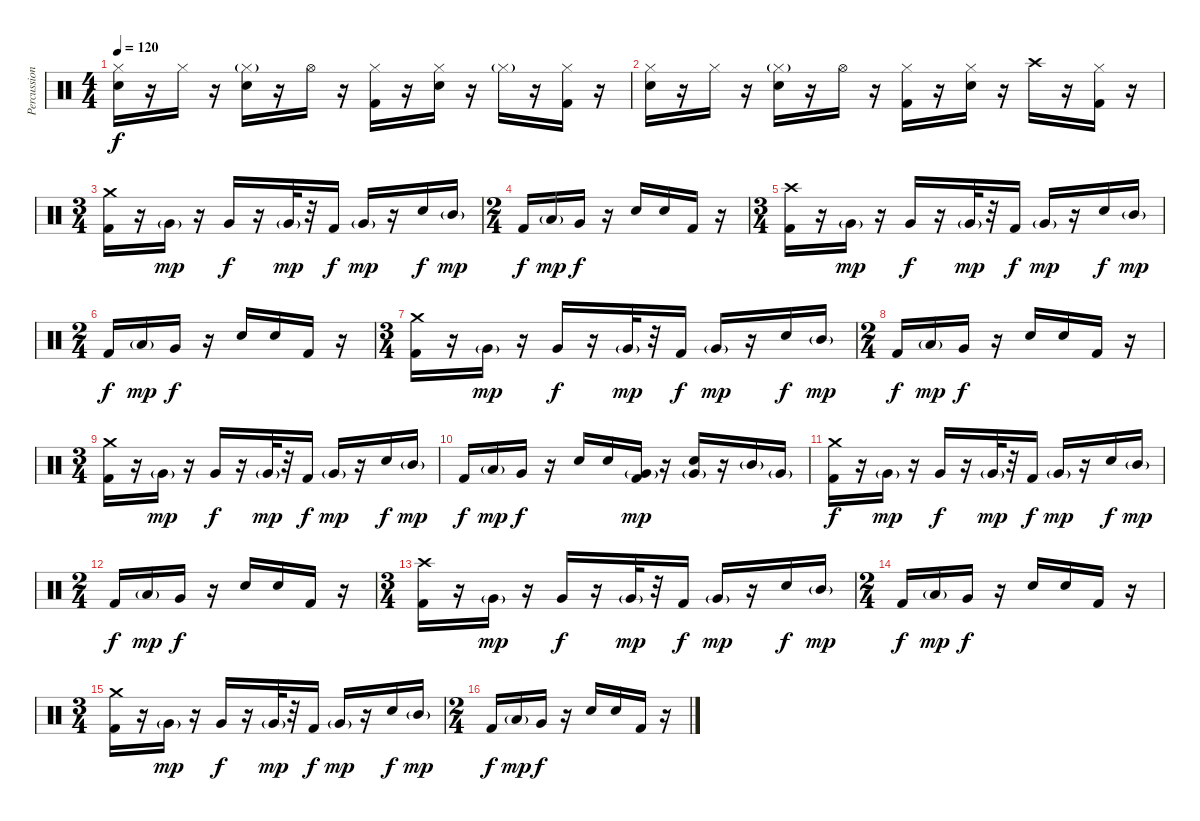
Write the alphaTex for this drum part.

\track ("Percussion" "Percussion") {instrument percussion}
\staff {score}
\articulation defaults
\ts (4 4)
\tempo 120
\clef neutral
\ks c
("Hi-Hat (closed)" "Electric Snare (hit)").16{dy f} r.16 "Hi-Hat (closed)".16 r.16 ("Hi-Hat (closed)"{g} "Electric Snare (hit)").16 r.16 "Hi-Hat (open)".16 r.16 ("Hi-Hat (closed)" "Kick (hit) 2").16 r.16 ("Hi-Hat (closed)" "Electric Snare (hit)").16 r.16 "Hi-Hat (closed)"{g}.16 r.16 ("Hi-Hat (closed)" "Kick (hit) 2").16 r.16 |
("Hi-Hat (closed)" "Electric Snare (hit)").16 r.16 "Hi-Hat (closed)".16 r.16 ("Hi-Hat (closed)"{g} "Electric Snare (hit)").16 r.16 "Hi-Hat (open)".16 r.16 ("Hi-Hat (closed)" "Kick (hit) 2").16 r.16 ("Hi-Hat (closed)" "Electric Snare (hit)").16 r.16 "Crash high (hit)".16 r.16 ("Hi-Hat (closed)" "Kick (hit) 2").16 r.16 |
\ts (3 4)
("Crash medium (hit)" "Kick (hit) 2").16 r.16 "Very Low Tom (hit)"{g}.16{dy mp} r.16 "Very Low Tom (hit)".16{dy f} r.16 "Very Low Tom (hit)"{g}.32{dy mp} r.32 "Kick (hit) 2".16{dy f} "Very Low Tom (hit)"{g}.16{dy mp} r.16 "Electric Snare (hit)".16{dy f} "Mid Tom (hit)"{g}.16{dy mp} |
\ts (2 4)
"Kick (hit) 2".16{dy f} "Low Tom (hit)"{g}.16{dy mp} "Very Low Tom (hit)".16{dy f} r.16 "Electric Snare (hit)".16 "Electric Snare (hit)".16 "Kick (hit) 2".16 r.16 |
\ts (3 4)
("Crash high (hit)" "Kick (hit) 2").16 r.16 "Very Low Tom (hit)"{g}.16{dy mp} r.16 "Very Low Tom (hit)".16{dy f} r.16 "Very Low Tom (hit)"{g}.32{dy mp} r.32 "Kick (hit) 2".16{dy f} "Very Low Tom (hit)"{g}.16{dy mp} r.16 "Electric Snare (hit)".16{dy f} "Mid Tom (hit)"{g}.16{dy mp} |
\ts (2 4)
"Kick (hit) 2".16{dy f} "Low Tom (hit)"{g}.16{dy mp} "Very Low Tom (hit)".16{dy f} r.16 "Electric Snare (hit)".16 "Electric Snare (hit)".16 "Kick (hit) 2".16 r.16 |
\ts (3 4)
("Crash medium (hit)" "Kick (hit) 2").16 r.16 "Very Low Tom (hit)"{g}.16{dy mp} r.16 "Very Low Tom (hit)".16{dy f} r.16 "Very Low Tom (hit)"{g}.32{dy mp} r.32 "Kick (hit) 2".16{dy f} "Very Low Tom (hit)"{g}.16{dy mp} r.16 "Electric Snare (hit)".16{dy f} "Mid Tom (hit)"{g}.16{dy mp} |
\ts (2 4)
"Kick (hit) 2".16{dy f} "Low Tom (hit)"{g}.16{dy mp} "Very Low Tom (hit)".16{dy f} r.16 "Electric Snare (hit)".16 "Electric Snare (hit)".16 "Kick (hit) 2".16 r.16 |
\ts (3 4)
("Crash medium (hit)" "Kick (hit) 2").16 r.16 "Very Low Tom (hit)"{g}.16{dy mp} r.16 "Very Low Tom (hit)".16{dy f} r.16 "Very Low Tom (hit)"{g}.32{dy mp} r.32 "Kick (hit) 2".16{dy f} "Very Low Tom (hit)"{g}.16{dy mp} r.16 "Electric Snare (hit)".16{dy f} "Mid Tom (hit)"{g}.16{dy mp} |
"Kick (hit) 2".16{dy f} "Low Tom (hit)"{g}.16{dy mp} "Very Low Tom (hit)".16{dy f} r.16 "Electric Snare (hit)".16 "Electric Snare (hit)".16 ("Very Low Tom (hit)"{g} "Kick (hit) 2").16{dy mp} r.16 ("Very Low Tom (hit)"{g} "Electric Snare (hit)").16 r.16 "Mid Tom (hit)"{g}.16 "Very Low Tom (hit)"{g}.16 |
("Crash medium (hit)" "Kick (hit) 2").16{dy f} r.16 "Very Low Tom (hit)"{g}.16{dy mp} r.16 "Very Low Tom (hit)".16{dy f} r.16 "Very Low Tom (hit)"{g}.32{dy mp} r.32 "Kick (hit) 2".16{dy f} "Very Low Tom (hit)"{g}.16{dy mp} r.16 "Electric Snare (hit)".16{dy f} "Mid Tom (hit)"{g}.16{dy mp} |
\ts (2 4)
"Kick (hit) 2".16{dy f} "Low Tom (hit)"{g}.16{dy mp} "Very Low Tom (hit)".16{dy f} r.16 "Electric Snare (hit)".16 "Electric Snare (hit)".16 "Kick (hit) 2".16 r.16 |
\ts (3 4)
("Crash high (hit)" "Kick (hit) 2").16 r.16 "Very Low Tom (hit)"{g}.16{dy mp} r.16 "Very Low Tom (hit)".16{dy f} r.16 "Very Low Tom (hit)"{g}.32{dy mp} r.32 "Kick (hit) 2".16{dy f} "Very Low Tom (hit)"{g}.16{dy mp} r.16 "Electric Snare (hit)".16{dy f} "Mid Tom (hit)"{g}.16{dy mp} |
\ts (2 4)
"Kick (hit) 2".16{dy f} "Low Tom (hit)"{g}.16{dy mp} "Very Low Tom (hit)".16{dy f} r.16 "Electric Snare (hit)".16 "Electric Snare (hit)".16 "Kick (hit) 2".16 r.16 |
\ts (3 4)
("Crash medium (hit)" "Kick (hit) 2").16 r.16 "Very Low Tom (hit)"{g}.16{dy mp} r.16 "Very Low Tom (hit)".16{dy f} r.16 "Very Low Tom (hit)"{g}.32{dy mp} r.32 "Kick (hit) 2".16{dy f} "Very Low Tom (hit)"{g}.16{dy mp} r.16 "Electric Snare (hit)".16{dy f} "Mid Tom (hit)"{g}.16{dy mp} |
\ts (2 4)
"Kick (hit) 2".16{dy f} "Low Tom (hit)"{g}.16{dy mp} "Very Low Tom (hit)".16{dy f} r.16 "Electric Snare (hit)".16 "Electric Snare (hit)".16 "Kick (hit) 2".16 r.16
